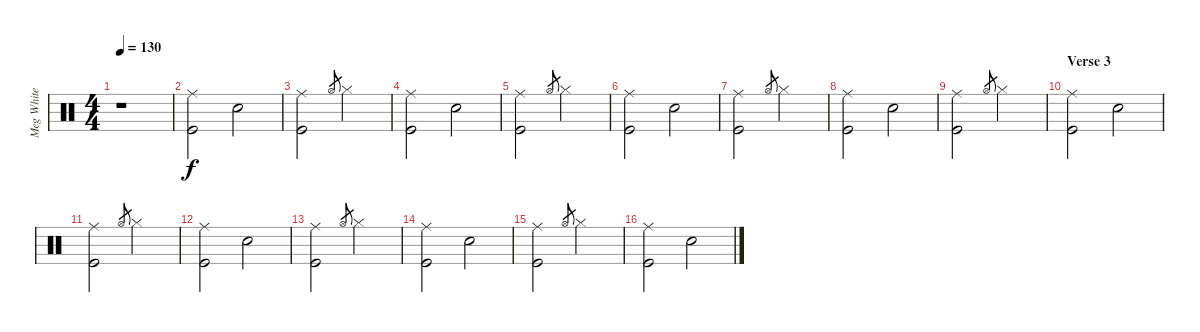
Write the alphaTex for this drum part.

\track ("Meg White (Drums)" "Meg White ") {instrument percussion}
\staff {score}
\articulation defaults
\ts (4 4)
\tempo 130
\clef neutral
\ks c
r.1{dy f} |
("Kick (hit)" "Ride (middle)").2 "Snare (hit) 2".2 |
("Kick (hit)" "Ride (middle)").2 "Hi-Hat (open)"{h}.8{gr} "Hi-Hat (closed)".2 |
("Kick (hit)" "Ride (middle)").2 "Snare (hit) 2".2 |
("Kick (hit)" "Ride (middle)").2 "Hi-Hat (open)"{h}.8{gr} "Hi-Hat (closed)".2 |
("Kick (hit)" "Ride (middle)").2 "Snare (hit) 2".2 |
("Kick (hit)" "Ride (middle)").2 "Hi-Hat (open)"{h}.8{gr} "Hi-Hat (closed)".2 |
("Kick (hit)" "Ride (middle)").2 "Snare (hit) 2".2 |
("Kick (hit)" "Ride (middle)").2 "Hi-Hat (open)"{h}.8{gr} "Hi-Hat (closed)".2 |
\section ("" "Verse 3")
("Kick (hit)" "Ride (middle)").2 "Snare (hit) 2".2 |
("Kick (hit)" "Ride (middle)").2 "Hi-Hat (open)"{h}.8{gr} "Hi-Hat (closed)".2 |
("Kick (hit)" "Ride (middle)").2 "Snare (hit) 2".2 |
("Kick (hit)" "Ride (middle)").2 "Hi-Hat (open)"{h}.8{gr} "Hi-Hat (closed)".2 |
("Kick (hit)" "Ride (middle)").2 "Snare (hit) 2".2 |
("Kick (hit)" "Ride (middle)").2 "Hi-Hat (open)"{h}.8{gr} "Hi-Hat (closed)".2 |
("Kick (hit)" "Ride (middle)").2 "Snare (hit) 2".2
